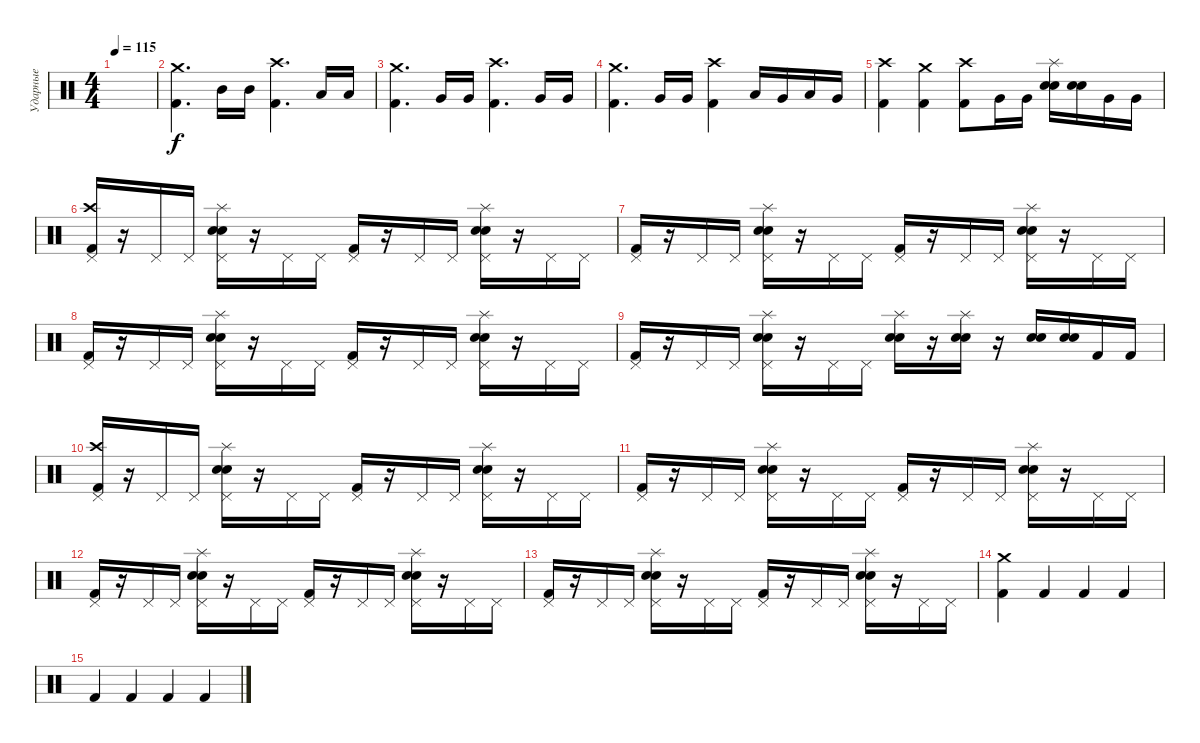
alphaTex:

\track ("Ударные" "Ударные") {instrument percussion}
\staff {score}
\articulation defaults
\ts (4 4)
\tempo 115
\clef neutral
\ks c
|
("Crash medium (hit)" "Kick (hit) 2").4{d} "Mid Tom (hit)".16 "Mid Tom (hit)".16 ("Crash high (hit)" "Kick (hit) 2").4{d} "Low Tom (hit)".16 "Low Tom (hit)".16 |
("Crash medium (hit)" "Kick (hit) 2").4{d} "Very Low Tom (hit)".16 "Very Low Tom (hit)".16 ("Crash high (hit)" "Kick (hit) 2").4{d} "Very Low Tom (hit)".16 "Very Low Tom (hit)".16 |
("Crash medium (hit)" "Kick (hit) 2").4{d} "Very Low Tom (hit)".16 "Very Low Tom (hit)".16 ("Crash high (hit)" "Kick (hit) 2").4 "Low Tom (hit)".16 "Very Low Tom (hit)".16 "Low Tom (hit)".16 "Very Low Tom (hit)".16 |
("Crash high (hit)" "Kick (hit) 2").4 ("Crash medium (hit)" "Kick (hit) 2").4 ("Crash high (hit)" "Kick (hit) 2").8 "Very Low Tom (hit)".16 "Very Low Tom (hit)".16 ("Splash (hit)" "Electric Snare (hit)" "Snare (hit) 2").16 ("Electric Snare (hit)" "Snare (hit) 2").16 "Very Low Tom (hit)".16 "Very Low Tom (hit)".16 |
("Crash high (hit)" "Pedal Hi-Hat (hit)" "Kick (hit) 2").16 r.16 "Pedal Hi-Hat (hit)".16 "Pedal Hi-Hat (hit)".16 ("Splash (hit)" "Pedal Hi-Hat (hit)" "Electric Snare (hit)" "Snare (hit) 2").16 r.16 "Pedal Hi-Hat (hit)".16 "Pedal Hi-Hat (hit)".16 ("Pedal Hi-Hat (hit)" "Kick (hit) 2").16 r.16 "Pedal Hi-Hat (hit)".16 "Pedal Hi-Hat (hit)".16 ("Splash (hit)" "Pedal Hi-Hat (hit)" "Electric Snare (hit)" "Snare (hit) 2").16 r.16 "Pedal Hi-Hat (hit)".16 "Pedal Hi-Hat (hit)".16 |
("Pedal Hi-Hat (hit)" "Kick (hit) 2").16 r.16 "Pedal Hi-Hat (hit)".16 "Pedal Hi-Hat (hit)".16 ("Splash (hit)" "Pedal Hi-Hat (hit)" "Electric Snare (hit)" "Snare (hit) 2").16 r.16 "Pedal Hi-Hat (hit)".16 "Pedal Hi-Hat (hit)".16 ("Pedal Hi-Hat (hit)" "Kick (hit) 2").16 r.16 "Pedal Hi-Hat (hit)".16 "Pedal Hi-Hat (hit)".16 ("Splash (hit)" "Pedal Hi-Hat (hit)" "Electric Snare (hit)" "Snare (hit) 2").16 r.16 "Pedal Hi-Hat (hit)".16 "Pedal Hi-Hat (hit)".16 |
("Pedal Hi-Hat (hit)" "Kick (hit) 2").16 r.16 "Pedal Hi-Hat (hit)".16 "Pedal Hi-Hat (hit)".16 ("Splash (hit)" "Pedal Hi-Hat (hit)" "Electric Snare (hit)" "Snare (hit) 2").16 r.16 "Pedal Hi-Hat (hit)".16 "Pedal Hi-Hat (hit)".16 ("Pedal Hi-Hat (hit)" "Kick (hit) 2").16 r.16 "Pedal Hi-Hat (hit)".16 "Pedal Hi-Hat (hit)".16 ("Splash (hit)" "Pedal Hi-Hat (hit)" "Electric Snare (hit)" "Snare (hit) 2").16 r.16 "Pedal Hi-Hat (hit)".16 "Pedal Hi-Hat (hit)".16 |
("Pedal Hi-Hat (hit)" "Kick (hit) 2").16 r.16 "Pedal Hi-Hat (hit)".16 "Pedal Hi-Hat (hit)".16 ("Splash (hit)" "Pedal Hi-Hat (hit)" "Electric Snare (hit)" "Snare (hit) 2").16 r.16 "Pedal Hi-Hat (hit)".16 "Pedal Hi-Hat (hit)".16 ("Splash (hit)" "Electric Snare (hit)" "Snare (hit) 2").16 r.16 ("Splash (hit)" "Electric Snare (hit)" "Snare (hit) 2").16 r.16 ("Electric Snare (hit)" "Snare (hit) 2").16 ("Electric Snare (hit)" "Snare (hit) 2").16 "Kick (hit) 2".16 "Kick (hit) 2".16 |
("Crash high (hit)" "Pedal Hi-Hat (hit)" "Kick (hit) 2").16 r.16 "Pedal Hi-Hat (hit)".16 "Pedal Hi-Hat (hit)".16 ("Splash (hit)" "Pedal Hi-Hat (hit)" "Electric Snare (hit)" "Snare (hit) 2").16 r.16 "Pedal Hi-Hat (hit)".16 "Pedal Hi-Hat (hit)".16 ("Pedal Hi-Hat (hit)" "Kick (hit) 2").16 r.16 "Pedal Hi-Hat (hit)".16 "Pedal Hi-Hat (hit)".16 ("Splash (hit)" "Pedal Hi-Hat (hit)" "Electric Snare (hit)" "Snare (hit) 2").16 r.16 "Pedal Hi-Hat (hit)".16 "Pedal Hi-Hat (hit)".16 |
("Pedal Hi-Hat (hit)" "Kick (hit) 2").16 r.16 "Pedal Hi-Hat (hit)".16 "Pedal Hi-Hat (hit)".16 ("Splash (hit)" "Pedal Hi-Hat (hit)" "Electric Snare (hit)" "Snare (hit) 2").16 r.16 "Pedal Hi-Hat (hit)".16 "Pedal Hi-Hat (hit)".16 ("Pedal Hi-Hat (hit)" "Kick (hit) 2").16 r.16 "Pedal Hi-Hat (hit)".16 "Pedal Hi-Hat (hit)".16 ("Splash (hit)" "Pedal Hi-Hat (hit)" "Electric Snare (hit)" "Snare (hit) 2").16 r.16 "Pedal Hi-Hat (hit)".16 "Pedal Hi-Hat (hit)".16 |
("Pedal Hi-Hat (hit)" "Kick (hit) 2").16 r.16 "Pedal Hi-Hat (hit)".16 "Pedal Hi-Hat (hit)".16 ("Splash (hit)" "Pedal Hi-Hat (hit)" "Electric Snare (hit)" "Snare (hit) 2").16 r.16 "Pedal Hi-Hat (hit)".16 "Pedal Hi-Hat (hit)".16 ("Pedal Hi-Hat (hit)" "Kick (hit) 2").16 r.16 "Pedal Hi-Hat (hit)".16 "Pedal Hi-Hat (hit)".16 ("Splash (hit)" "Pedal Hi-Hat (hit)" "Electric Snare (hit)" "Snare (hit) 2").16 r.16 "Pedal Hi-Hat (hit)".16 "Pedal Hi-Hat (hit)".16 |
("Pedal Hi-Hat (hit)" "Kick (hit) 2").16 r.16 "Pedal Hi-Hat (hit)".16 "Pedal Hi-Hat (hit)".16 ("Splash (hit)" "Pedal Hi-Hat (hit)" "Electric Snare (hit)" "Snare (hit) 2").16 r.16 "Pedal Hi-Hat (hit)".16 "Pedal Hi-Hat (hit)".16 ("Pedal Hi-Hat (hit)" "Kick (hit) 2").16 r.16 "Pedal Hi-Hat (hit)".16 "Pedal Hi-Hat (hit)".16 ("Splash (hit)" "Pedal Hi-Hat (hit)" "Electric Snare (hit)" "Snare (hit) 2").16 r.16 "Pedal Hi-Hat (hit)".16 "Pedal Hi-Hat (hit)".16 |
("Crash medium (hit)" "Kick (hit) 2").4 "Kick (hit) 2".4 "Kick (hit) 2".4 "Kick (hit) 2".4 |
"Kick (hit) 2".4 "Kick (hit) 2".4 "Kick (hit) 2".4 "Kick (hit) 2".4
